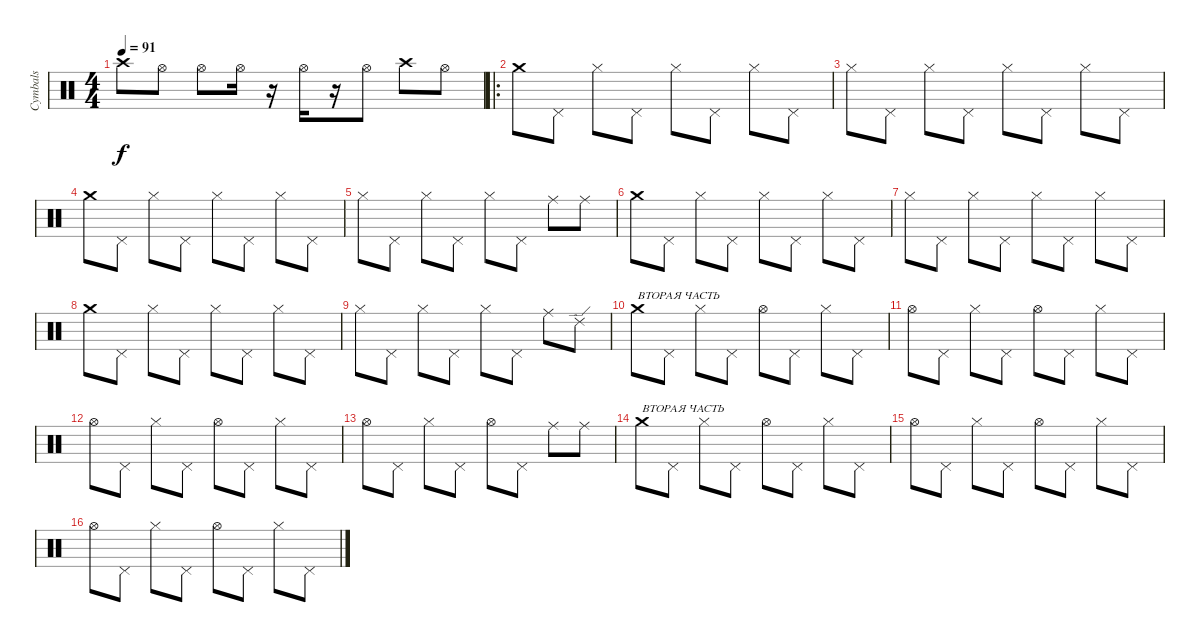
\track ("Cymbals" "Cymbals") {instrument percussion}
\staff {score}
\articulation defaults
\ts (4 4)
\tempo 91
\clef neutral
\ks c "Crash high (hit)".8{dy f} "Hi-Hat (open)".8 "Hi-Hat (open)".8 "Hi-Hat (open)".16
r.16 "Hi-Hat (open)".16 r.16 "Hi-Hat (open)".8 "Crash high (hit)".8 "Hi-Hat (open)".8 |
\ro "Crash medium (hit)".8 "Pedal Hi-Hat (hit)".8 "Hi-Hat (closed)".8 "Pedal Hi-Hat (hit)".8 "Hi-Hat (closed)".8 "Pedal Hi-Hat (hit)".8 "Hi-Hat (closed)".8 "Pedal Hi-Hat (hit)".8
|
"Hi-Hat (closed)".8 "Pedal Hi-Hat (hit)".8 "Hi-Hat (closed)".8 "Pedal Hi-Hat (hit)".8 "Hi-Hat (closed)".8 "Pedal Hi-Hat (hit)".8 "Hi-Hat (closed)".8 "Pedal Hi-Hat (hit)".8 |
"Crash medium (hit)".8 "Pedal Hi-Hat (hit)".8 "Hi-Hat (closed)".8 "Pedal Hi-Hat (hit)".8 "Hi-Hat (closed)".8 "Pedal Hi-Hat (hit)".8 "Hi-Hat (closed)".8 "Pedal Hi-Hat (hit)".8 |
"Hi-Hat (closed)".8 "Pedal Hi-Hat (hit)".8 "Hi-Hat (closed)".8 "Pedal Hi-Hat (hit)".8 "Hi-Hat (closed)".8 "Pedal Hi-Hat (hit)".8 "Ride (middle)".8 "Ride (middle)".8 |
"Crash medium (hit)".8 "Pedal Hi-Hat (hit)".8 "Hi-Hat (closed)".8 "Pedal Hi-Hat (hit)".8 "Hi-Hat (closed)".8 "Pedal Hi-Hat (hit)".8 "Hi-Hat (closed)".8 "Pedal Hi-Hat (hit)".8 |
"Hi-Hat (closed)".8 "Pedal Hi-Hat (hit)".8 "Hi-Hat (closed)".8 "Pedal Hi-Hat (hit)".8 "Hi-Hat (closed)".8 "Pedal Hi-Hat (hit)".8 "Hi-Hat (closed)".8 "Pedal Hi-Hat (hit)".8 |
"Crash medium (hit)".8 "Pedal Hi-Hat (hit)".8 "Hi-Hat (closed)".8 "Pedal Hi-Hat (hit)".8 "Hi-Hat (closed)".8 "Pedal Hi-Hat (hit)".8 "Hi-Hat (closed)".8 "Pedal Hi-Hat (hit)".8 |
"Hi-Hat (closed)".8 "Pedal Hi-Hat (hit)".8 "Hi-Hat (closed)".8 "Pedal Hi-Hat (hit)".8 "Hi-Hat (closed)".8 "Pedal Hi-Hat (hit)".8 "Ride (middle)".8 "Ride (edge) 2".8 |
"Crash medium (hit)".8{txt "ВТОРАЯ ЧАСТЬ"} "Pedal Hi-Hat (hit)".8 "Hi-Hat (closed)".8 "Pedal Hi-Hat (hit)".8 "Hi-Hat (open)".8 "Pedal Hi-Hat (hit)".8 "Hi-Hat (closed)".8 "Pedal Hi-Hat (hit)".8 |
"Hi-Hat (open)".8 "Pedal Hi-Hat (hit)".8 "Hi-Hat (closed)".8 "Pedal Hi-Hat (hit)".8 "Hi-Hat (open)".8 "Pedal Hi-Hat (hit)".8 "Hi-Hat (closed)".8 "Pedal Hi-Hat (hit)".8 |
"Hi-Hat (open)".8 "Pedal Hi-Hat (hit)".8 "Hi-Hat (closed)".8 "Pedal Hi-Hat (hit)".8 "Hi-Hat (open)".8 "Pedal Hi-Hat (hit)".8 "Hi-Hat (closed)".8 "Pedal Hi-Hat (hit)".8 |
"Hi-Hat (open)".8 "Pedal Hi-Hat (hit)".8 "Hi-Hat (closed)".8 "Pedal Hi-Hat (hit)".8 "Hi-Hat (open)".8 "Pedal Hi-Hat (hit)".8 "Ride (middle)".8 "Ride (middle)".8 |
"Crash medium (hit)".8{txt "ВТОРАЯ ЧАСТЬ"} "Pedal Hi-Hat (hit)".8 "Hi-Hat (closed)".8 "Pedal Hi-Hat (hit)".8 "Hi-Hat (open)".8 "Pedal Hi-Hat (hit)".8 "Hi-Hat (closed)".8 "Pedal Hi-Hat (hit)".8 |
"Hi-Hat (open)".8 "Pedal Hi-Hat (hit)".8 "Hi-Hat (closed)".8 "Pedal Hi-Hat (hit)".8 "Hi-Hat (open)".8 "Pedal Hi-Hat (hit)".8 "Hi-Hat (closed)".8 "Pedal Hi-Hat (hit)".8 |
"Hi-Hat (open)".8 "Pedal Hi-Hat (hit)".8 "Hi-Hat (closed)".8 "Pedal Hi-Hat (hit)".8 "Hi-Hat (open)".8 "Pedal Hi-Hat (hit)".8 "Hi-Hat (closed)".8 "Pedal Hi-Hat (hit)".8
